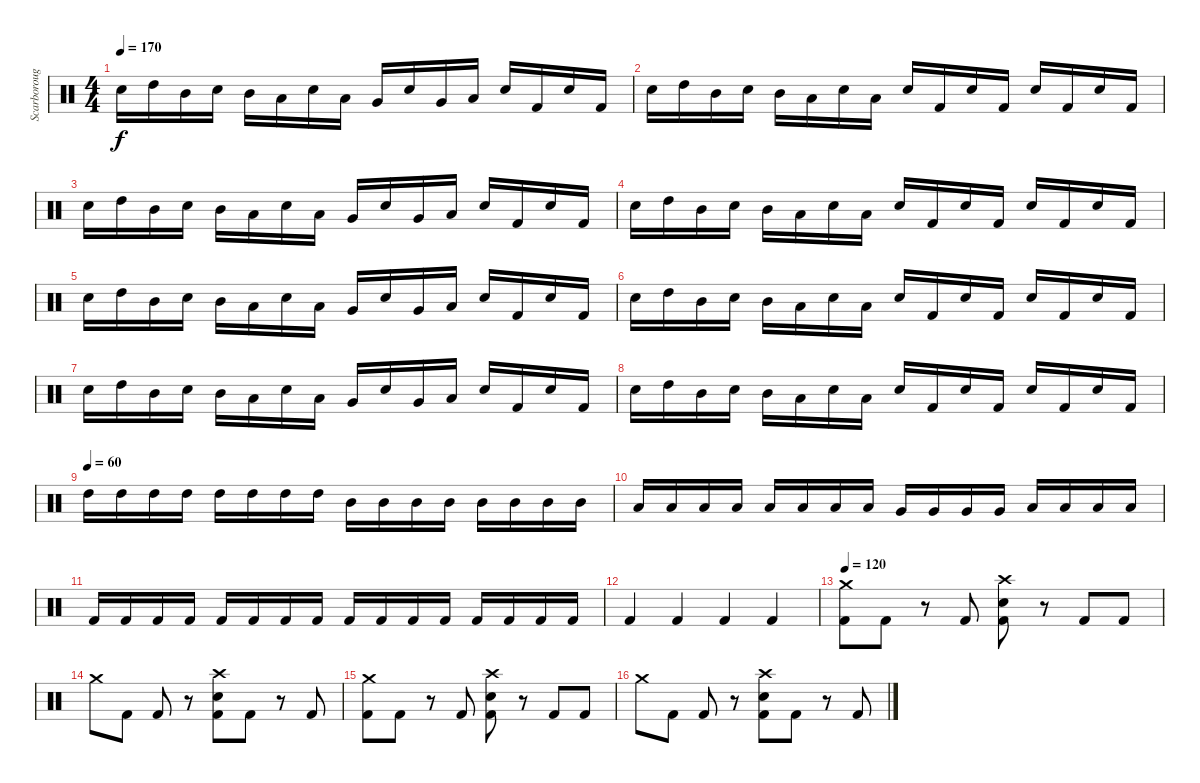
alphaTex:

\track ("Scarborough" "Scarboroug") {instrument percussion}
\staff {score}
\articulation defaults
\ts (4 4)
\tempo 170
\clef neutral
\ks c "Snare (hit) 2".16{dy f} "High Tom (hit)".16 "Mid Tom (hit)".16 "Snare (hit) 2".16 "Mid Tom (hit)".16 "Low Tom (hit)".16 "Snare (hit) 2".16 "Low Tom (hit)".16 "Very Low Tom (hit)".16 "Snare (hit) 2".16 "Very Low Tom (hit)".16 "Low Floor Tom (hit)".16 "Snare (hit) 2".16 "Kick (hit) 2".16 "Snare (hit) 2".16 "Kick (hit) 2".16
|
"Snare (hit) 2".16 "High Tom (hit)".16 "Mid Tom (hit)".16 "Snare (hit) 2".16 "Mid Tom (hit)".16 "Low Tom (hit)".16 "Snare (hit) 2".16 "Low Tom (hit)".16 "Snare (hit) 2".16 "Kick (hit) 2".16 "Snare (hit) 2".16 "Kick (hit) 2".16 "Snare (hit) 2".16 "Kick (hit) 2".16 "Snare (hit) 2".16 "Kick (hit) 2".16 |
"Snare (hit) 2".16 "High Tom (hit)".16 "Mid Tom (hit)".16 "Snare (hit) 2".16 "Mid Tom (hit)".16 "Low Tom (hit)".16 "Snare (hit) 2".16 "Low Tom (hit)".16 "Very Low Tom (hit)".16 "Snare (hit) 2".16 "Very Low Tom (hit)".16 "Low Floor Tom (hit)".16 "Snare (hit) 2".16 "Kick (hit) 2".16 "Snare (hit) 2".16 "Kick (hit) 2".16 |
"Snare (hit) 2".16 "High Tom (hit)".16 "Mid Tom (hit)".16 "Snare (hit) 2".16 "Mid Tom (hit)".16 "Low Tom (hit)".16 "Snare (hit) 2".16 "Low Tom (hit)".16 "Snare (hit) 2".16 "Kick (hit) 2".16 "Snare (hit) 2".16 "Kick (hit) 2".16 "Snare (hit) 2".16 "Kick (hit) 2".16 "Snare (hit) 2".16 "Kick (hit) 2".16 |
"Snare (hit) 2".16 "High Tom (hit)".16 "Mid Tom (hit)".16 "Snare (hit) 2".16 "Mid Tom (hit)".16 "Low Tom (hit)".16 "Snare (hit) 2".16 "Low Tom (hit)".16 "Very Low Tom (hit)".16 "Snare (hit) 2".16 "Very Low Tom (hit)".16 "Low Floor Tom (hit)".16 "Snare (hit) 2".16 "Kick (hit) 2".16 "Snare (hit) 2".16 "Kick (hit) 2".16 |
"Snare (hit) 2".16 "High Tom (hit)".16 "Mid Tom (hit)".16 "Snare (hit) 2".16 "Mid Tom (hit)".16 "Low Tom (hit)".16 "Snare (hit) 2".16 "Low Tom (hit)".16 "Snare (hit) 2".16 "Kick (hit) 2".16 "Snare (hit) 2".16 "Kick (hit) 2".16 "Snare (hit) 2".16 "Kick (hit) 2".16 "Snare (hit) 2".16 "Kick (hit) 2".16 |
"Snare (hit) 2".16 "High Tom (hit)".16 "Mid Tom (hit)".16 "Snare (hit) 2".16 "Mid Tom (hit)".16 "Low Tom (hit)".16 "Snare (hit) 2".16 "Low Tom (hit)".16 "Very Low Tom (hit)".16 "Snare (hit) 2".16 "Very Low Tom (hit)".16 "Low Floor Tom (hit)".16 "Snare (hit) 2".16 "Kick (hit) 2".16 "Snare (hit) 2".16 "Kick (hit) 2".16 |
"Snare (hit) 2".16 "High Tom (hit)".16 "Mid Tom (hit)".16 "Snare (hit) 2".16 "Mid Tom (hit)".16 "Low Tom (hit)".16 "Snare (hit) 2".16 "Low Tom (hit)".16 "Snare (hit) 2".16 "Kick (hit) 2".16 "Snare (hit) 2".16 "Kick (hit) 2".16 "Snare (hit) 2".16 "Kick (hit) 2".16 "Snare (hit) 2".16 "Kick (hit) 2".16 |
\tempo (60)
"High Tom (hit)".16 "High Tom (hit)".16 "High Tom (hit)".16 "High Tom (hit)".16 "High Tom (hit)".16 "High Tom (hit)".16 "High Tom (hit)".16 "High Tom (hit)".16 "Mid Tom (hit)".16 "Mid Tom (hit)".16 "Mid Tom (hit)".16 "Mid Tom (hit)".16 "Mid Tom (hit)".16 "Mid Tom (hit)".16 "Mid Tom (hit)".16 "Mid Tom (hit)".16 |
"Low Tom (hit)".16 "Low Tom (hit)".16 "Low Tom (hit)".16 "Low Tom (hit)".16 "Low Tom (hit)".16 "Low Tom (hit)".16 "Low Tom (hit)".16 "Low Tom (hit)".16 "Very Low Tom (hit)".16 "Very Low Tom (hit)".16 "Very Low Tom (hit)".16 "Very Low Tom (hit)".16 "Low Floor Tom (hit)".16 "Low Floor Tom (hit)".16 "Low Floor Tom (hit)".16 "Low Floor Tom (hit)".16 |
"Kick (hit) 2".16 "Kick (hit) 2".16 "Kick (hit) 2".16 "Kick (hit) 2".16 "Kick (hit) 2".16 "Kick (hit) 2".16 "Kick (hit) 2".16 "Kick (hit) 2".16 "Kick (hit) 2".16 "Kick (hit) 2".16 "Kick (hit) 2".16 "Kick (hit) 2".16 "Kick (hit) 2".16 "Kick (hit) 2".16 "Kick (hit) 2".16 "Kick (hit) 2".16 |
"Kick (hit) 2".4 "Kick (hit) 2".4 "Kick (hit) 2".4 "Kick (hit) 2".4 |
\tempo 120
("Crash medium (hit)" "Kick (hit) 2").8 "Kick (hit) 2".8 r.8 "Kick (hit) 2".8 ("Crash high (hit)" "Kick (hit) 2" "Snare (hit) 2").8 r.8 "Kick (hit) 2".8 "Kick (hit) 2".8 |
"Crash medium (hit)".8 "Kick (hit) 2".8 "Kick (hit) 2".8 r.8 ("Crash high (hit)" "Kick (hit) 2" "Snare (hit) 2").8 "Kick (hit) 2".8 r.8 "Kick (hit) 2".8 |
("Crash medium (hit)" "Kick (hit) 2").8 "Kick (hit) 2".8 r.8 "Kick (hit) 2".8 ("Crash high (hit)" "Kick (hit) 2" "Snare (hit) 2").8 r.8 "Kick (hit) 2".8 "Kick (hit) 2".8 |
"Crash medium (hit)".8 "Kick (hit) 2".8 "Kick (hit) 2".8 r.8 ("Crash high (hit)" "Kick (hit) 2" "Snare (hit) 2").8 "Kick (hit) 2".8 r.8 "Kick (hit) 2".8
